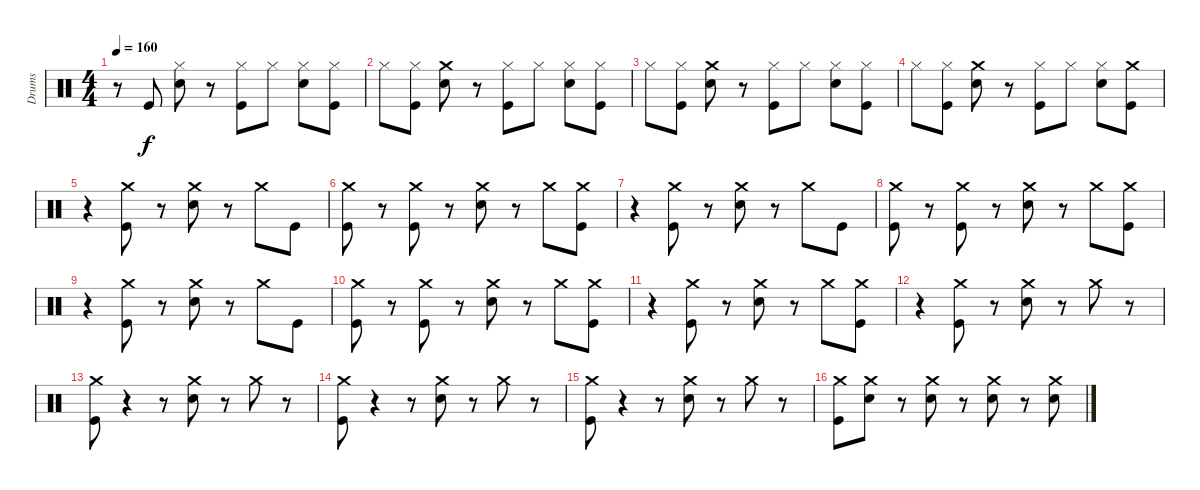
\track ("Drums" "Drums") {instrument percussion}
\staff {score}
\articulation defaults
\ts (4 4)
\tempo 160
\clef neutral
\ks c
r.8{dy f} "Kick (hit)".8 ("Hi-Hat (closed)" "Snare (hit) 2").8 r.8 ("Hi-Hat (closed)" "Kick (hit)").8 "Hi-Hat (closed)".8 ("Snare (hit) 2" "Hi-Hat (closed)").8 ("Kick (hit)" "Hi-Hat (closed)").8 |
"Hi-Hat (closed)".8 ("Kick (hit)" "Hi-Hat (closed)").8 ("Crash medium (hit)" "Snare (hit) 2").8 r.8 ("Hi-Hat (closed)" "Kick (hit)").8 "Hi-Hat (closed)".8 ("Snare (hit) 2" "Hi-Hat (closed)").8 ("Kick (hit)" "Hi-Hat (closed)").8 |
"Hi-Hat (closed)".8 ("Kick (hit)" "Hi-Hat (closed)").8 ("Crash medium (hit)" "Snare (hit) 2").8 r.8 ("Hi-Hat (closed)" "Kick (hit)").8 "Hi-Hat (closed)".8 ("Snare (hit) 2" "Hi-Hat (closed)").8 ("Kick (hit)" "Hi-Hat (closed)").8 |
"Hi-Hat (closed)".8 ("Kick (hit)" "Hi-Hat (closed)").8 ("Crash medium (hit)" "Snare (hit) 2").8 r.8 ("Hi-Hat (closed)" "Kick (hit)").8 "Hi-Hat (closed)".8 ("Snare (hit) 2" "Hi-Hat (closed)").8 ("Crash medium (hit)" "Kick (hit)").8 |
r.4 ("Kick (hit)" "Crash medium (hit)").8 r.8 ("Snare (hit) 2" "Crash medium (hit)").8 r.8 "Crash medium (hit)".8 "Kick (hit)".8 |
("Crash medium (hit)" "Kick (hit)").8 r.8 ("Crash medium (hit)" "Kick (hit)").8 r.8 ("Snare (hit) 2" "Crash medium (hit)").8 r.8 "Crash medium (hit)".8 ("Kick (hit)" "Crash medium (hit)").8 |
r.4 ("Crash medium (hit)" "Kick (hit)").8 r.8 ("Snare (hit) 2" "Crash medium (hit)").8 r.8 "Crash medium (hit)".8 "Kick (hit)".8 |
("Crash medium (hit)" "Kick (hit)").8 r.8 ("Kick (hit)" "Crash medium (hit)").8 r.8 ("Crash medium (hit)" "Snare (hit) 2").8 r.8 "Crash medium (hit)".8 ("Kick (hit)" "Crash medium (hit)").8 |
r.4 ("Crash medium (hit)" "Kick (hit)").8 r.8 ("Snare (hit) 2" "Crash medium (hit)").8 r.8 "Crash medium (hit)".8 "Kick (hit)".8 |
("Crash medium (hit)" "Kick (hit)").8 r.8 ("Crash medium (hit)" "Kick (hit)").8 r.8 ("Snare (hit) 2" "Crash medium (hit)").8 r.8 "Crash medium (hit)".8 ("Kick (hit)" "Crash medium (hit)").8 |
r.4 ("Kick (hit)" "Crash medium (hit)").8 r.8 ("Crash medium (hit)" "Snare (hit) 2").8 r.8 "Crash medium (hit)".8 ("Kick (hit)" "Crash medium (hit)").8 |
r.4 ("Kick (hit)" "Crash medium (hit)").8 r.8 ("Crash medium (hit)" "Snare (hit) 2").8 r.8 "Crash medium (hit)".8 r.8 |
("Kick (hit)" "Crash medium (hit)").8 r.4 r.8 ("Crash medium (hit)" "Snare (hit) 2").8 r.8 "Crash medium (hit)".8 r.8 |
("Kick (hit)" "Crash medium (hit)").8 r.4 r.8 ("Crash medium (hit)" "Snare (hit) 2").8 r.8 "Crash medium (hit)".8 r.8 |
("Crash medium (hit)" "Kick (hit)").8 r.4 r.8 ("Snare (hit) 2" "Crash medium (hit)").8 r.8 "Crash medium (hit)".8 r.8 |
("Kick (hit)" "Crash medium (hit)").8 ("Snare (hit) 2" "Crash medium (hit)").8 r.8 ("Crash medium (hit)" "Snare (hit) 2").8 r.8 ("Snare (hit) 2" "Crash medium (hit)").8 r.8 ("Snare (hit) 2" "Crash medium (hit)").8
